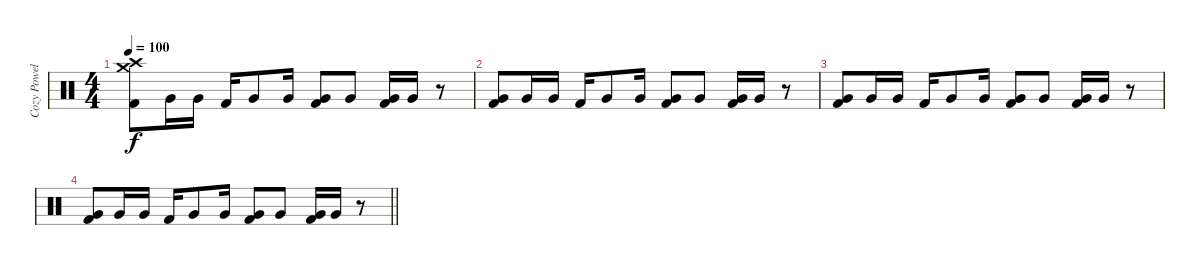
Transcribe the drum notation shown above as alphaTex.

\track ("Cozy Powell " "Cozy Powel") {instrument percussion}
\staff {score}
\articulation defaults
\ts (4 4)
\tempo 100
\clef neutral
\ks c
("Crash medium (hit)" "Crash high (hit)" "Kick (hit) 2").8{dy f} "Very Low Tom (hit)".16 "Very Low Tom (hit)".16 "Kick (hit) 2".16 "Very Low Tom (hit)".8 "Very Low Tom (hit)".16 ("Very Low Tom (hit)" "Kick (hit) 2").8 "Very Low Tom (hit)".8 ("Very Low Tom (hit)" "Kick (hit) 2").16 "Very Low Tom (hit)".16 r.8 |
("Very Low Tom (hit)" "Kick (hit) 2").8 "Very Low Tom (hit)".16 "Very Low Tom (hit)".16 "Kick (hit) 2".16 "Very Low Tom (hit)".8 "Very Low Tom (hit)".16 ("Very Low Tom (hit)" "Kick (hit) 2").8 "Very Low Tom (hit)".8 ("Very Low Tom (hit)" "Kick (hit) 2").16 "Very Low Tom (hit)".16 r.8 |
("Very Low Tom (hit)" "Kick (hit) 2").8 "Very Low Tom (hit)".16 "Very Low Tom (hit)".16 "Kick (hit) 2".16 "Very Low Tom (hit)".8 "Very Low Tom (hit)".16 ("Very Low Tom (hit)" "Kick (hit) 2").8 "Very Low Tom (hit)".8 ("Very Low Tom (hit)" "Kick (hit) 2").16 "Very Low Tom (hit)".16 r.8 |
\barLineRight lightlight
("Very Low Tom (hit)" "Kick (hit) 2").8 "Very Low Tom (hit)".16 "Very Low Tom (hit)".16 "Kick (hit) 2".16 "Very Low Tom (hit)".8 "Very Low Tom (hit)".16 ("Very Low Tom (hit)" "Kick (hit) 2").8 "Very Low Tom (hit)".8 ("Very Low Tom (hit)" "Kick (hit) 2").16 "Very Low Tom (hit)".16 r.8
